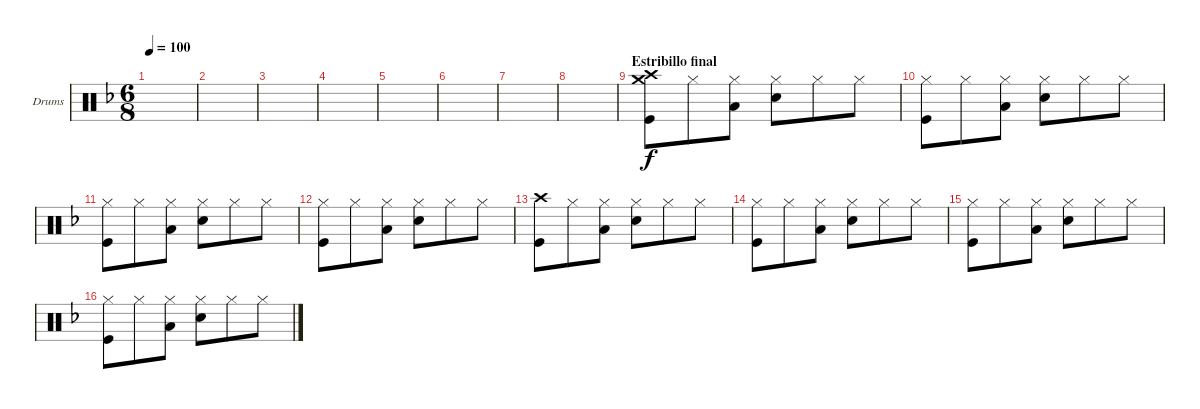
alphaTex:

\defaultSystemsLayout 4
\bracketExtendMode groupsimilarinstruments
\firstSystemTrackNameOrientation horizontal
\otherSystemsTrackNameOrientation horizontal
\track ("Drumkit" "Drums") {instrument percussion}
\staff {score}
\articulation defaults
\ts (6 8)
\tempo 100
\clef neutral
\ks dminor
|
|
|
|
|
|
|
|
\section ("" "Estribillo final")
("Kick (hit)" "Crash high (hit)" "Crash medium (hit)").8 "Hi-Hat (closed)".8 ("Hi-Hat (closed)" "Low Tom (hit)").8 ("Hi-Hat (closed)" "Snare (hit) 2").8 "Hi-Hat (closed)".8 "Hi-Hat (closed)".8 |
("Kick (hit)" "Hi-Hat (closed)").8 "Hi-Hat (closed)".8 ("Hi-Hat (closed)" "Low Tom (hit)").8 ("Hi-Hat (closed)" "Snare (hit) 2").8 "Hi-Hat (closed)".8 "Hi-Hat (closed)".8 |
("Kick (hit)" "Hi-Hat (closed)").8 "Hi-Hat (closed)".8 ("Hi-Hat (closed)" "Low Tom (hit)").8 ("Hi-Hat (closed)" "Snare (hit) 2").8 "Hi-Hat (closed)".8 "Hi-Hat (closed)".8 |
("Kick (hit)" "Hi-Hat (closed)").8 "Hi-Hat (closed)".8 ("Hi-Hat (closed)" "Low Tom (hit)").8 ("Hi-Hat (closed)" "Snare (hit) 2").8 "Hi-Hat (closed)".8 "Hi-Hat (closed)".8 |
("Kick (hit)" "Crash high (hit)").8 "Hi-Hat (closed)".8 ("Hi-Hat (closed)" "Low Tom (hit)").8 ("Hi-Hat (closed)" "Snare (hit) 2").8 "Hi-Hat (closed)".8 "Hi-Hat (closed)".8 |
("Kick (hit)" "Hi-Hat (closed)").8 "Hi-Hat (closed)".8 ("Hi-Hat (closed)" "Low Tom (hit)").8 ("Hi-Hat (closed)" "Snare (hit) 2").8 "Hi-Hat (closed)".8 "Hi-Hat (closed)".8 |
("Kick (hit)" "Hi-Hat (closed)").8 "Hi-Hat (closed)".8 ("Hi-Hat (closed)" "Low Tom (hit)").8 ("Hi-Hat (closed)" "Snare (hit) 2").8 "Hi-Hat (closed)".8 "Hi-Hat (closed)".8 |
("Kick (hit)" "Hi-Hat (closed)").8 "Hi-Hat (closed)".8 ("Hi-Hat (closed)" "Low Tom (hit)").8 ("Hi-Hat (closed)" "Snare (hit) 2").8 "Hi-Hat (closed)".8 "Hi-Hat (closed)".8
